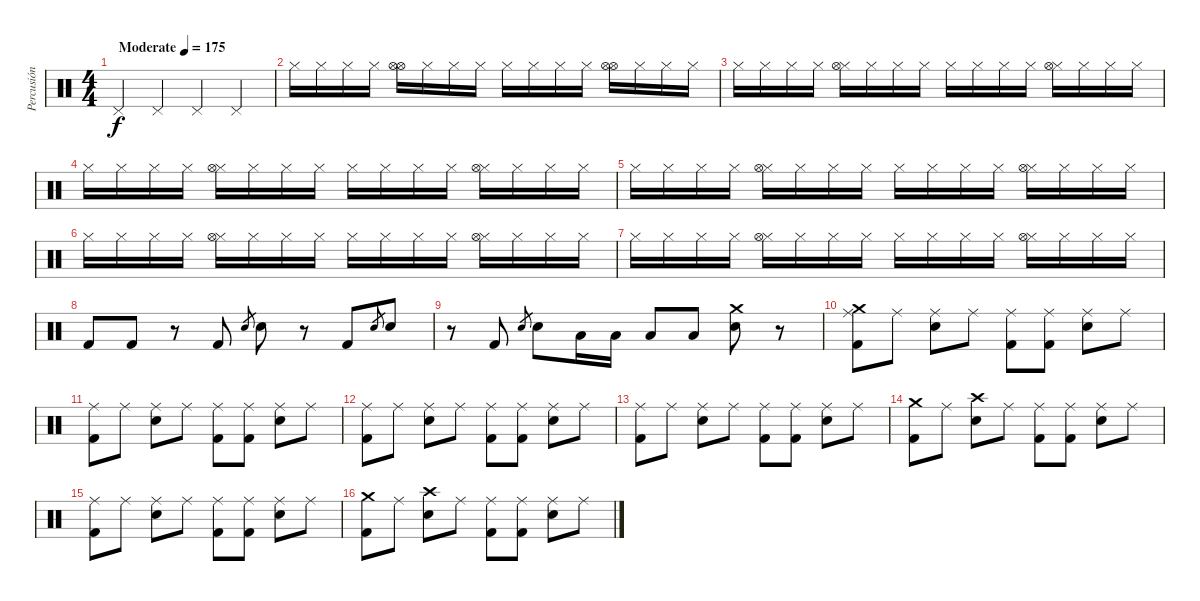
\track ("Percusión" "Percusión") {instrument percussion}
\staff {score}
\articulation defaults
\ts (4 4)
\tempo (175 "Moderate")
\clef neutral
\ks c "Pedal Hi-Hat (hit)".4{dy f} "Pedal Hi-Hat (hit)".4 "Pedal Hi-Hat (hit)".4 "Pedal Hi-Hat (hit)".4
|
"Hi-Hat (closed)".16 "Hi-Hat (closed)".16 "Hi-Hat (closed)".16 "Hi-Hat (closed)".16 ("Hi-Hat (open)" "Hi-Hat (open)").16 "Hi-Hat (closed)".16 "Hi-Hat (closed)".16 "Hi-Hat (closed)".16 "Hi-Hat (closed)".16 "Hi-Hat (closed)".16 "Hi-Hat (closed)".16 "Hi-Hat (closed)".16 ("Hi-Hat (open)" "Hi-Hat (open)").16 "Hi-Hat (closed)".16 "Hi-Hat (closed)".16 "Hi-Hat (closed)".16 |
"Hi-Hat (closed)".16 "Hi-Hat (closed)".16 "Hi-Hat (closed)".16 "Hi-Hat (closed)".16 ("Hi-Hat (closed)" "Hi-Hat (open)").16 "Hi-Hat (closed)".16 "Hi-Hat (closed)".16 "Hi-Hat (closed)".16 "Hi-Hat (closed)".16 "Hi-Hat (closed)".16 "Hi-Hat (closed)".16 "Hi-Hat (closed)".16 ("Hi-Hat (closed)" "Hi-Hat (open)").16 "Hi-Hat (closed)".16 "Hi-Hat (closed)".16 "Hi-Hat (closed)".16 |
"Hi-Hat (closed)".16 "Hi-Hat (closed)".16 "Hi-Hat (closed)".16 "Hi-Hat (closed)".16 ("Hi-Hat (closed)" "Hi-Hat (open)").16 "Hi-Hat (closed)".16 "Hi-Hat (closed)".16 "Hi-Hat (closed)".16 "Hi-Hat (closed)".16 "Hi-Hat (closed)".16 "Hi-Hat (closed)".16 "Hi-Hat (closed)".16 ("Hi-Hat (closed)" "Hi-Hat (open)").16 "Hi-Hat (closed)".16 "Hi-Hat (closed)".16 "Hi-Hat (closed)".16 |
"Hi-Hat (closed)".16 "Hi-Hat (closed)".16 "Hi-Hat (closed)".16 "Hi-Hat (closed)".16 ("Hi-Hat (closed)" "Hi-Hat (open)").16 "Hi-Hat (closed)".16 "Hi-Hat (closed)".16 "Hi-Hat (closed)".16 "Hi-Hat (closed)".16 "Hi-Hat (closed)".16 "Hi-Hat (closed)".16 "Hi-Hat (closed)".16 ("Hi-Hat (closed)" "Hi-Hat (open)").16 "Hi-Hat (closed)".16 "Hi-Hat (closed)".16 "Hi-Hat (closed)".16 |
"Hi-Hat (closed)".16 "Hi-Hat (closed)".16 "Hi-Hat (closed)".16 "Hi-Hat (closed)".16 ("Hi-Hat (closed)" "Hi-Hat (open)").16 "Hi-Hat (closed)".16 "Hi-Hat (closed)".16 "Hi-Hat (closed)".16 "Hi-Hat (closed)".16 "Hi-Hat (closed)".16 "Hi-Hat (closed)".16 "Hi-Hat (closed)".16 ("Hi-Hat (closed)" "Hi-Hat (open)").16 "Hi-Hat (closed)".16 "Hi-Hat (closed)".16 "Hi-Hat (closed)".16 |
"Hi-Hat (closed)".16 "Hi-Hat (closed)".16 "Hi-Hat (closed)".16 "Hi-Hat (closed)".16 ("Hi-Hat (closed)" "Hi-Hat (open)").16 "Hi-Hat (closed)".16 "Hi-Hat (closed)".16 "Hi-Hat (closed)".16 "Hi-Hat (closed)".16 "Hi-Hat (closed)".16 "Hi-Hat (closed)".16 "Hi-Hat (closed)".16 ("Hi-Hat (closed)" "Hi-Hat (open)").16 "Hi-Hat (closed)".16 "Hi-Hat (closed)".16 "Hi-Hat (closed)".16 |
"Kick (hit) 2".8 "Kick (hit) 2".8 r.8 "Kick (hit) 2".8 "Electric Snare (hit)".8{gr} "Electric Snare (hit)".8 r.8 "Kick (hit) 2".8 "Electric Snare (hit)".8{gr} "Electric Snare (hit)".8 |
r.8 "Kick (hit) 2".8 "Electric Snare (hit)".8{gr} "Electric Snare (hit)".8 "Low Tom (hit)".16 "Low Floor Tom (hit)".16 "Low Floor Tom (hit)".8 "Low Floor Tom (hit)".8 ("Electric Snare (hit)" "Crash medium (hit)").8 r.8 |
("Ride (middle)" "Kick (hit) 2" "Crash medium (hit)").8 "Ride (middle)".8 ("Ride (middle)" "Electric Snare (hit)").8 "Ride (middle)".8 ("Kick (hit) 2" "Ride (middle)").8 ("Kick (hit) 2" "Ride (middle)").8 ("Electric Snare (hit)" "Ride (middle)").8 "Ride (middle)".8 |
("Ride (middle)" "Kick (hit) 2").8 "Ride (middle)".8 ("Ride (middle)" "Electric Snare (hit)").8 "Ride (middle)".8 ("Kick (hit) 2" "Ride (middle)").8 ("Kick (hit) 2" "Ride (middle)").8 ("Electric Snare (hit)" "Ride (middle)").8 "Ride (middle)".8 |
("Ride (middle)" "Kick (hit) 2").8 "Ride (middle)".8 ("Ride (middle)" "Electric Snare (hit)").8 "Ride (middle)".8 ("Kick (hit) 2" "Ride (middle)").8 ("Kick (hit) 2" "Ride (middle)").8 ("Electric Snare (hit)" "Ride (middle)").8 "Ride (middle)".8 |
("Ride (middle)" "Kick (hit) 2").8 "Ride (middle)".8 ("Ride (middle)" "Electric Snare (hit)").8 "Ride (middle)".8 ("Kick (hit) 2" "Ride (middle)").8 ("Kick (hit) 2" "Ride (middle)").8 ("Electric Snare (hit)" "Ride (middle)").8 "Ride (middle)".8 |
("Kick (hit) 2" "Crash medium (hit)").8 "Ride (middle)".8 ("Crash high (hit)" "Electric Snare (hit)").8 "Ride (middle)".8 ("Kick (hit) 2" "Ride (middle)").8 ("Kick (hit) 2" "Ride (middle)").8 ("Electric Snare (hit)" "Ride (middle)").8 "Ride (middle)".8 |
("Ride (middle)" "Kick (hit) 2").8 "Ride (middle)".8 ("Ride (middle)" "Electric Snare (hit)").8 "Ride (middle)".8 ("Kick (hit) 2" "Ride (middle)").8 ("Kick (hit) 2" "Ride (middle)").8 ("Electric Snare (hit)" "Ride (middle)").8 "Ride (middle)".8 |
("Kick (hit) 2" "Crash medium (hit)").8 "Ride (middle)".8 ("Crash high (hit)" "Electric Snare (hit)").8 "Ride (middle)".8 ("Kick (hit) 2" "Ride (middle)").8 ("Kick (hit) 2" "Ride (middle)").8 ("Electric Snare (hit)" "Ride (middle)").8 "Ride (middle)".8
